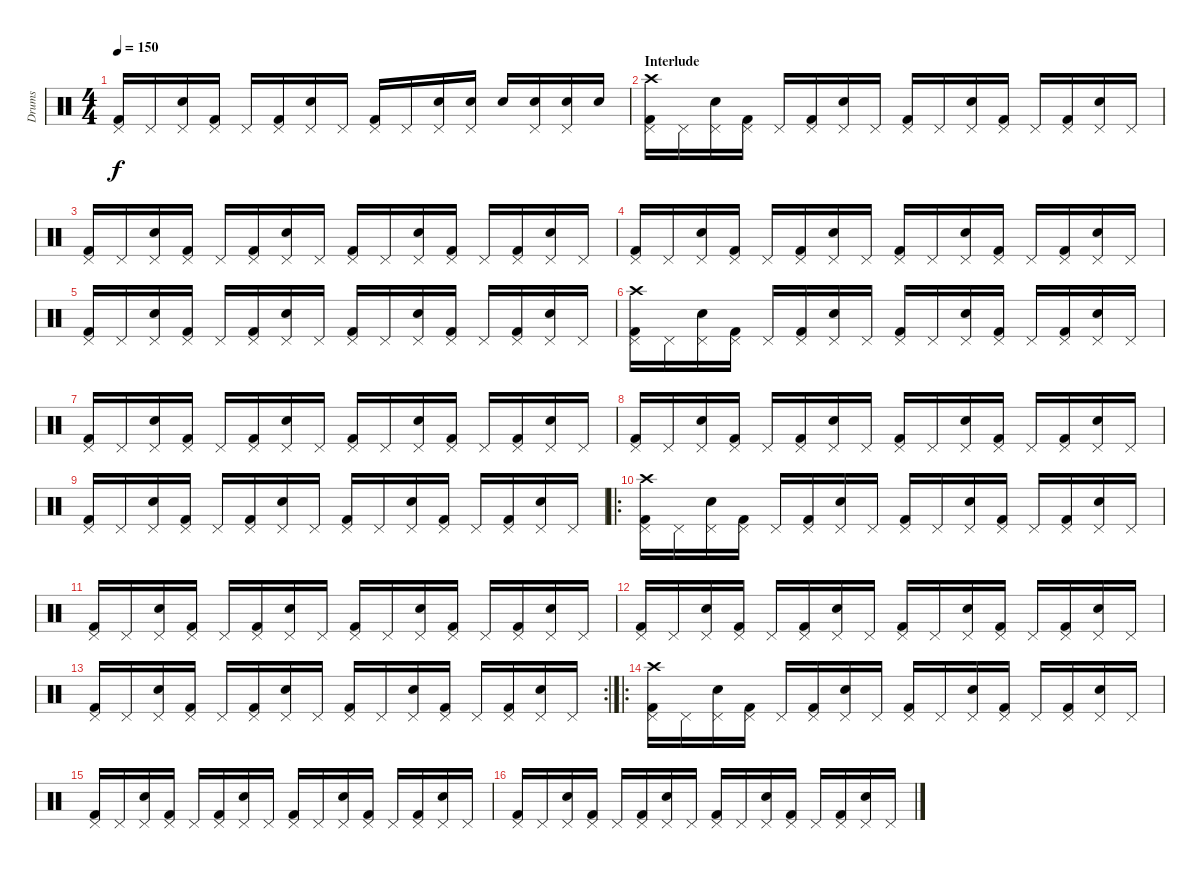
\track ("Drums" "Drums") {instrument percussion}
\staff {score}
\articulation defaults
\ts (4 4)
\tempo 150
\clef neutral
\ks c
("Kick (hit) 2" "Pedal Hi-Hat (hit)").16{dy f} "Pedal Hi-Hat (hit)".16 ("Snare (hit) 2" "Pedal Hi-Hat (hit)").16 ("Kick (hit) 2" "Pedal Hi-Hat (hit)").16 "Pedal Hi-Hat (hit)".16 ("Kick (hit) 2" "Pedal Hi-Hat (hit)").16 ("Snare (hit) 2" "Pedal Hi-Hat (hit)").16 "Pedal Hi-Hat (hit)".16 ("Kick (hit) 2" "Pedal Hi-Hat (hit)").16 "Pedal Hi-Hat (hit)".16 ("Snare (hit) 2" "Pedal Hi-Hat (hit)").16 ("Snare (hit) 2" "Pedal Hi-Hat (hit)").16 "Snare (hit) 2".16 ("Snare (hit) 2" "Pedal Hi-Hat (hit)").16 ("Snare (hit) 2" "Pedal Hi-Hat (hit)").16 "Snare (hit) 2".16 |
\section ("" "Interlude")
("Kick (hit) 2" "Pedal Hi-Hat (hit)" "Crash high (hit)").16 "Pedal Hi-Hat (hit)".16 ("Snare (hit) 2" "Pedal Hi-Hat (hit)").16 ("Kick (hit) 2" "Pedal Hi-Hat (hit)").16 "Pedal Hi-Hat (hit)".16 ("Kick (hit) 2" "Pedal Hi-Hat (hit)").16 ("Snare (hit) 2" "Pedal Hi-Hat (hit)").16 "Pedal Hi-Hat (hit)".16 ("Kick (hit) 2" "Pedal Hi-Hat (hit)").16 "Pedal Hi-Hat (hit)".16 ("Snare (hit) 2" "Pedal Hi-Hat (hit)").16 ("Kick (hit) 2" "Pedal Hi-Hat (hit)").16 "Pedal Hi-Hat (hit)".16 ("Kick (hit) 2" "Pedal Hi-Hat (hit)").16 ("Snare (hit) 2" "Pedal Hi-Hat (hit)").16 "Pedal Hi-Hat (hit)".16 |
("Kick (hit) 2" "Pedal Hi-Hat (hit)").16 "Pedal Hi-Hat (hit)".16 ("Snare (hit) 2" "Pedal Hi-Hat (hit)").16 ("Kick (hit) 2" "Pedal Hi-Hat (hit)").16 "Pedal Hi-Hat (hit)".16 ("Kick (hit) 2" "Pedal Hi-Hat (hit)").16 ("Snare (hit) 2" "Pedal Hi-Hat (hit)").16 "Pedal Hi-Hat (hit)".16 ("Kick (hit) 2" "Pedal Hi-Hat (hit)").16 "Pedal Hi-Hat (hit)".16 ("Snare (hit) 2" "Pedal Hi-Hat (hit)").16 ("Kick (hit) 2" "Pedal Hi-Hat (hit)").16 "Pedal Hi-Hat (hit)".16 ("Kick (hit) 2" "Pedal Hi-Hat (hit)").16 ("Snare (hit) 2" "Pedal Hi-Hat (hit)").16 "Pedal Hi-Hat (hit)".16 |
("Kick (hit) 2" "Pedal Hi-Hat (hit)").16 "Pedal Hi-Hat (hit)".16 ("Snare (hit) 2" "Pedal Hi-Hat (hit)").16 ("Kick (hit) 2" "Pedal Hi-Hat (hit)").16 "Pedal Hi-Hat (hit)".16 ("Kick (hit) 2" "Pedal Hi-Hat (hit)").16 ("Snare (hit) 2" "Pedal Hi-Hat (hit)").16 "Pedal Hi-Hat (hit)".16 ("Kick (hit) 2" "Pedal Hi-Hat (hit)").16 "Pedal Hi-Hat (hit)".16 ("Snare (hit) 2" "Pedal Hi-Hat (hit)").16 ("Kick (hit) 2" "Pedal Hi-Hat (hit)").16 "Pedal Hi-Hat (hit)".16 ("Kick (hit) 2" "Pedal Hi-Hat (hit)").16 ("Snare (hit) 2" "Pedal Hi-Hat (hit)").16 "Pedal Hi-Hat (hit)".16 |
("Kick (hit) 2" "Pedal Hi-Hat (hit)").16 "Pedal Hi-Hat (hit)".16 ("Snare (hit) 2" "Pedal Hi-Hat (hit)").16 ("Kick (hit) 2" "Pedal Hi-Hat (hit)").16 "Pedal Hi-Hat (hit)".16 ("Kick (hit) 2" "Pedal Hi-Hat (hit)").16 ("Snare (hit) 2" "Pedal Hi-Hat (hit)").16 "Pedal Hi-Hat (hit)".16 ("Kick (hit) 2" "Pedal Hi-Hat (hit)").16 "Pedal Hi-Hat (hit)".16 ("Snare (hit) 2" "Pedal Hi-Hat (hit)").16 ("Kick (hit) 2" "Pedal Hi-Hat (hit)").16 "Pedal Hi-Hat (hit)".16 ("Kick (hit) 2" "Pedal Hi-Hat (hit)").16 ("Snare (hit) 2" "Pedal Hi-Hat (hit)").16 "Pedal Hi-Hat (hit)".16 |
("Kick (hit) 2" "Pedal Hi-Hat (hit)" "Crash high (hit)").16 "Pedal Hi-Hat (hit)".16 ("Snare (hit) 2" "Pedal Hi-Hat (hit)").16 ("Kick (hit) 2" "Pedal Hi-Hat (hit)").16 "Pedal Hi-Hat (hit)".16 ("Kick (hit) 2" "Pedal Hi-Hat (hit)").16 ("Snare (hit) 2" "Pedal Hi-Hat (hit)").16 "Pedal Hi-Hat (hit)".16 ("Kick (hit) 2" "Pedal Hi-Hat (hit)").16 "Pedal Hi-Hat (hit)".16 ("Snare (hit) 2" "Pedal Hi-Hat (hit)").16 ("Kick (hit) 2" "Pedal Hi-Hat (hit)").16 "Pedal Hi-Hat (hit)".16 ("Kick (hit) 2" "Pedal Hi-Hat (hit)").16 ("Snare (hit) 2" "Pedal Hi-Hat (hit)").16 "Pedal Hi-Hat (hit)".16 |
("Kick (hit) 2" "Pedal Hi-Hat (hit)").16 "Pedal Hi-Hat (hit)".16 ("Snare (hit) 2" "Pedal Hi-Hat (hit)").16 ("Kick (hit) 2" "Pedal Hi-Hat (hit)").16 "Pedal Hi-Hat (hit)".16 ("Kick (hit) 2" "Pedal Hi-Hat (hit)").16 ("Snare (hit) 2" "Pedal Hi-Hat (hit)").16 "Pedal Hi-Hat (hit)".16 ("Kick (hit) 2" "Pedal Hi-Hat (hit)").16 "Pedal Hi-Hat (hit)".16 ("Snare (hit) 2" "Pedal Hi-Hat (hit)").16 ("Kick (hit) 2" "Pedal Hi-Hat (hit)").16 "Pedal Hi-Hat (hit)".16 ("Kick (hit) 2" "Pedal Hi-Hat (hit)").16 ("Snare (hit) 2" "Pedal Hi-Hat (hit)").16 "Pedal Hi-Hat (hit)".16 |
("Kick (hit) 2" "Pedal Hi-Hat (hit)").16 "Pedal Hi-Hat (hit)".16 ("Snare (hit) 2" "Pedal Hi-Hat (hit)").16 ("Kick (hit) 2" "Pedal Hi-Hat (hit)").16 "Pedal Hi-Hat (hit)".16 ("Kick (hit) 2" "Pedal Hi-Hat (hit)").16 ("Snare (hit) 2" "Pedal Hi-Hat (hit)").16 "Pedal Hi-Hat (hit)".16 ("Kick (hit) 2" "Pedal Hi-Hat (hit)").16 "Pedal Hi-Hat (hit)".16 ("Snare (hit) 2" "Pedal Hi-Hat (hit)").16 ("Kick (hit) 2" "Pedal Hi-Hat (hit)").16 "Pedal Hi-Hat (hit)".16 ("Kick (hit) 2" "Pedal Hi-Hat (hit)").16 ("Snare (hit) 2" "Pedal Hi-Hat (hit)").16 "Pedal Hi-Hat (hit)".16 |
("Kick (hit) 2" "Pedal Hi-Hat (hit)").16 "Pedal Hi-Hat (hit)".16 ("Snare (hit) 2" "Pedal Hi-Hat (hit)").16 ("Kick (hit) 2" "Pedal Hi-Hat (hit)").16 "Pedal Hi-Hat (hit)".16 ("Kick (hit) 2" "Pedal Hi-Hat (hit)").16 ("Snare (hit) 2" "Pedal Hi-Hat (hit)").16 "Pedal Hi-Hat (hit)".16 ("Kick (hit) 2" "Pedal Hi-Hat (hit)").16 "Pedal Hi-Hat (hit)".16 ("Snare (hit) 2" "Pedal Hi-Hat (hit)").16 ("Kick (hit) 2" "Pedal Hi-Hat (hit)").16 "Pedal Hi-Hat (hit)".16 ("Kick (hit) 2" "Pedal Hi-Hat (hit)").16 ("Snare (hit) 2" "Pedal Hi-Hat (hit)").16 "Pedal Hi-Hat (hit)".16 |
\ro
("Kick (hit) 2" "Pedal Hi-Hat (hit)" "Crash high (hit)").16 "Pedal Hi-Hat (hit)".16 ("Snare (hit) 2" "Pedal Hi-Hat (hit)").16 ("Kick (hit) 2" "Pedal Hi-Hat (hit)").16 "Pedal Hi-Hat (hit)".16 ("Kick (hit) 2" "Pedal Hi-Hat (hit)").16 ("Snare (hit) 2" "Pedal Hi-Hat (hit)").16 "Pedal Hi-Hat (hit)".16 ("Kick (hit) 2" "Pedal Hi-Hat (hit)").16 "Pedal Hi-Hat (hit)".16 ("Snare (hit) 2" "Pedal Hi-Hat (hit)").16 ("Kick (hit) 2" "Pedal Hi-Hat (hit)").16 "Pedal Hi-Hat (hit)".16 ("Kick (hit) 2" "Pedal Hi-Hat (hit)").16 ("Snare (hit) 2" "Pedal Hi-Hat (hit)").16 "Pedal Hi-Hat (hit)".16 |
("Kick (hit) 2" "Pedal Hi-Hat (hit)").16 "Pedal Hi-Hat (hit)".16 ("Snare (hit) 2" "Pedal Hi-Hat (hit)").16 ("Kick (hit) 2" "Pedal Hi-Hat (hit)").16 "Pedal Hi-Hat (hit)".16 ("Kick (hit) 2" "Pedal Hi-Hat (hit)").16 ("Snare (hit) 2" "Pedal Hi-Hat (hit)").16 "Pedal Hi-Hat (hit)".16 ("Kick (hit) 2" "Pedal Hi-Hat (hit)").16 "Pedal Hi-Hat (hit)".16 ("Snare (hit) 2" "Pedal Hi-Hat (hit)").16 ("Kick (hit) 2" "Pedal Hi-Hat (hit)").16 "Pedal Hi-Hat (hit)".16 ("Kick (hit) 2" "Pedal Hi-Hat (hit)").16 ("Snare (hit) 2" "Pedal Hi-Hat (hit)").16 "Pedal Hi-Hat (hit)".16 |
("Kick (hit) 2" "Pedal Hi-Hat (hit)").16 "Pedal Hi-Hat (hit)".16 ("Snare (hit) 2" "Pedal Hi-Hat (hit)").16 ("Kick (hit) 2" "Pedal Hi-Hat (hit)").16 "Pedal Hi-Hat (hit)".16 ("Kick (hit) 2" "Pedal Hi-Hat (hit)").16 ("Snare (hit) 2" "Pedal Hi-Hat (hit)").16 "Pedal Hi-Hat (hit)".16 ("Kick (hit) 2" "Pedal Hi-Hat (hit)").16 "Pedal Hi-Hat (hit)".16 ("Snare (hit) 2" "Pedal Hi-Hat (hit)").16 ("Kick (hit) 2" "Pedal Hi-Hat (hit)").16 "Pedal Hi-Hat (hit)".16 ("Kick (hit) 2" "Pedal Hi-Hat (hit)").16 ("Snare (hit) 2" "Pedal Hi-Hat (hit)").16 "Pedal Hi-Hat (hit)".16 |
\rc 2
("Kick (hit) 2" "Pedal Hi-Hat (hit)").16 "Pedal Hi-Hat (hit)".16 ("Snare (hit) 2" "Pedal Hi-Hat (hit)").16 ("Kick (hit) 2" "Pedal Hi-Hat (hit)").16 "Pedal Hi-Hat (hit)".16 ("Kick (hit) 2" "Pedal Hi-Hat (hit)").16 ("Snare (hit) 2" "Pedal Hi-Hat (hit)").16 "Pedal Hi-Hat (hit)".16 ("Kick (hit) 2" "Pedal Hi-Hat (hit)").16 "Pedal Hi-Hat (hit)".16 ("Snare (hit) 2" "Pedal Hi-Hat (hit)").16 ("Kick (hit) 2" "Pedal Hi-Hat (hit)").16 "Pedal Hi-Hat (hit)".16 ("Kick (hit) 2" "Pedal Hi-Hat (hit)").16 ("Snare (hit) 2" "Pedal Hi-Hat (hit)").16 "Pedal Hi-Hat (hit)".16 |
\ro
("Kick (hit) 2" "Pedal Hi-Hat (hit)" "Crash high (hit)").16 "Pedal Hi-Hat (hit)".16 ("Snare (hit) 2" "Pedal Hi-Hat (hit)").16 ("Kick (hit) 2" "Pedal Hi-Hat (hit)").16 "Pedal Hi-Hat (hit)".16 ("Kick (hit) 2" "Pedal Hi-Hat (hit)").16 ("Snare (hit) 2" "Pedal Hi-Hat (hit)").16 "Pedal Hi-Hat (hit)".16 ("Kick (hit) 2" "Pedal Hi-Hat (hit)").16 "Pedal Hi-Hat (hit)".16 ("Snare (hit) 2" "Pedal Hi-Hat (hit)").16 ("Kick (hit) 2" "Pedal Hi-Hat (hit)").16 "Pedal Hi-Hat (hit)".16 ("Kick (hit) 2" "Pedal Hi-Hat (hit)").16 ("Snare (hit) 2" "Pedal Hi-Hat (hit)").16 "Pedal Hi-Hat (hit)".16 |
("Kick (hit) 2" "Pedal Hi-Hat (hit)").16 "Pedal Hi-Hat (hit)".16 ("Snare (hit) 2" "Pedal Hi-Hat (hit)").16 ("Kick (hit) 2" "Pedal Hi-Hat (hit)").16 "Pedal Hi-Hat (hit)".16 ("Kick (hit) 2" "Pedal Hi-Hat (hit)").16 ("Snare (hit) 2" "Pedal Hi-Hat (hit)").16 "Pedal Hi-Hat (hit)".16 ("Kick (hit) 2" "Pedal Hi-Hat (hit)").16 "Pedal Hi-Hat (hit)".16 ("Snare (hit) 2" "Pedal Hi-Hat (hit)").16 ("Kick (hit) 2" "Pedal Hi-Hat (hit)").16 "Pedal Hi-Hat (hit)".16 ("Kick (hit) 2" "Pedal Hi-Hat (hit)").16 ("Snare (hit) 2" "Pedal Hi-Hat (hit)").16 "Pedal Hi-Hat (hit)".16 |
("Kick (hit) 2" "Pedal Hi-Hat (hit)").16 "Pedal Hi-Hat (hit)".16 ("Snare (hit) 2" "Pedal Hi-Hat (hit)").16 ("Kick (hit) 2" "Pedal Hi-Hat (hit)").16 "Pedal Hi-Hat (hit)".16 ("Kick (hit) 2" "Pedal Hi-Hat (hit)").16 ("Snare (hit) 2" "Pedal Hi-Hat (hit)").16 "Pedal Hi-Hat (hit)".16 ("Kick (hit) 2" "Pedal Hi-Hat (hit)").16 "Pedal Hi-Hat (hit)".16 ("Snare (hit) 2" "Pedal Hi-Hat (hit)").16 ("Kick (hit) 2" "Pedal Hi-Hat (hit)").16 "Pedal Hi-Hat (hit)".16 ("Kick (hit) 2" "Pedal Hi-Hat (hit)").16 ("Snare (hit) 2" "Pedal Hi-Hat (hit)").16 "Pedal Hi-Hat (hit)".16
